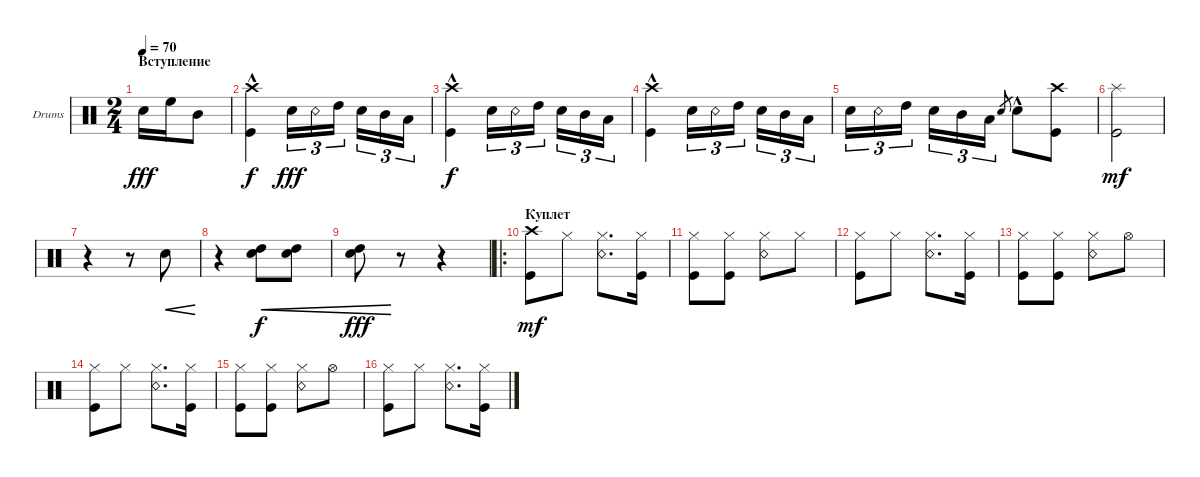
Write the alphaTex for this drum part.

\defaultSystemsLayout 4
\bracketExtendMode groupsimilarinstruments
\firstSystemTrackNameOrientation horizontal
\otherSystemsTrackNameOrientation horizontal
\track ("Drumkit" "Drums") {instrument percussion}
\staff {score}
\articulation defaults
\ts (2 4)
\section ("" "Вступление")
\ac
\scale
0.255652
\tempo 70
\accidentals auto
\clef neutral
\ottava regular
\simile none
\ks c "Snare (hit) 2".16{dy fff} "High Floor Tom (hit)".16 "Mid Tom (hit)".8
|
\scale
0.372174 ("Crash high (hit)" "Kick (hit)"{hac}).4{dy f} "Snare (hit) 2".16{tu (3 2) dy fff} "Snare (rim shot)".16{tu (3 2)} "High Tom (hit)".16{tu (3 2)} "Snare (hit) 2".16{tu (3 2)} "Mid Tom (hit)".16{tu (3 2)} "Low Tom (hit)".16{tu (3 2)} |
\scale
0.372174 ("Crash high (hit)" "Kick (hit)"{hac}).4{dy f} "Snare (hit) 2".16{tu (3 2)} "Snare (rim shot)".16{tu (3 2)} "High Tom (hit)".16{tu (3 2)} "Snare (hit) 2".16{tu (3 2)} "Mid Tom (hit)".16{tu (3 2)} "Low Tom (hit)".16{tu (3 2)} |
\scale
0.5 ("Crash high (hit)" "Kick (hit)"{hac}).4 "Snare (hit) 2".16{tu (3 2)} "Snare (rim shot)".16{tu (3 2)} "High Tom (hit)".16{tu (3 2)} "Snare (hit) 2".16{tu (3 2)} "Mid Tom (hit)".16{tu (3 2)} "Low Tom (hit)".16{tu (3 2)} |
"Snare (hit) 2".16{tu (3 2)} "Snare (rim shot)".16{tu (3 2)} "High Tom (hit)".16{tu (3 2)} "Snare (hit) 2".16{tu (3 2)} "Mid Tom (hit)".16{tu (3 2)} "Low Tom (hit)".16{tu (3 2)} "Snare (hit) 2".8{gr} "Snare (hit) 2"{hac}.8 ("Kick (hit)" "Crash high (hit)").8 |
("Kick (hit)" "Splash (hit)").2{dy mf} |
r.4 r.8 "Snare (hit) 2".8{cre} |
r.4 ("High Tom (hit)" "Snare (hit) 2").8{cre dy f} ("High Tom (hit)" "Snare (hit) 2").8{cre} |
("Snare (hit) 2" "High Tom (hit)").8{cre dy fff} r.8 r.4 |
\ro
\section ("" "Куплет")
("Kick (hit)" "Crash high (hit)").8{dy mf} "Hi-Hat (closed)".8 ("Snare (rim shot)" "Hi-Hat (closed)").8{d} ("Hi-Hat (closed)" "Kick (hit)").16 |
("Kick (hit)" "Hi-Hat (closed)").8 ("Kick (hit)" "Hi-Hat (closed)").8 ("Snare (rim shot)" "Hi-Hat (closed)").8 "Hi-Hat (closed)".8 |
("Kick (hit)" "Hi-Hat (closed)").8 "Hi-Hat (closed)".8 ("Snare (rim shot)" "Hi-Hat (closed)").8{d} ("Hi-Hat (closed)" "Kick (hit)").16 |
("Kick (hit)" "Hi-Hat (closed)").8 ("Kick (hit)" "Hi-Hat (closed)").8 ("Snare (rim shot)" "Hi-Hat (closed)").8 "Hi-Hat (open)".8 |
("Kick (hit)" "Hi-Hat (closed)").8 "Hi-Hat (closed)".8 ("Snare (rim shot)" "Hi-Hat (closed)").8{d} ("Hi-Hat (closed)" "Kick (hit)").16 |
("Kick (hit)" "Hi-Hat (closed)").8 ("Kick (hit)" "Hi-Hat (closed)").8 ("Snare (rim shot)" "Hi-Hat (closed)").8 "Hi-Hat (open)".8 |
("Kick (hit)" "Hi-Hat (closed)").8 "Hi-Hat (closed)".8 ("Snare (rim shot)" "Hi-Hat (closed)").8{d} ("Hi-Hat (closed)" "Kick (hit)").16
